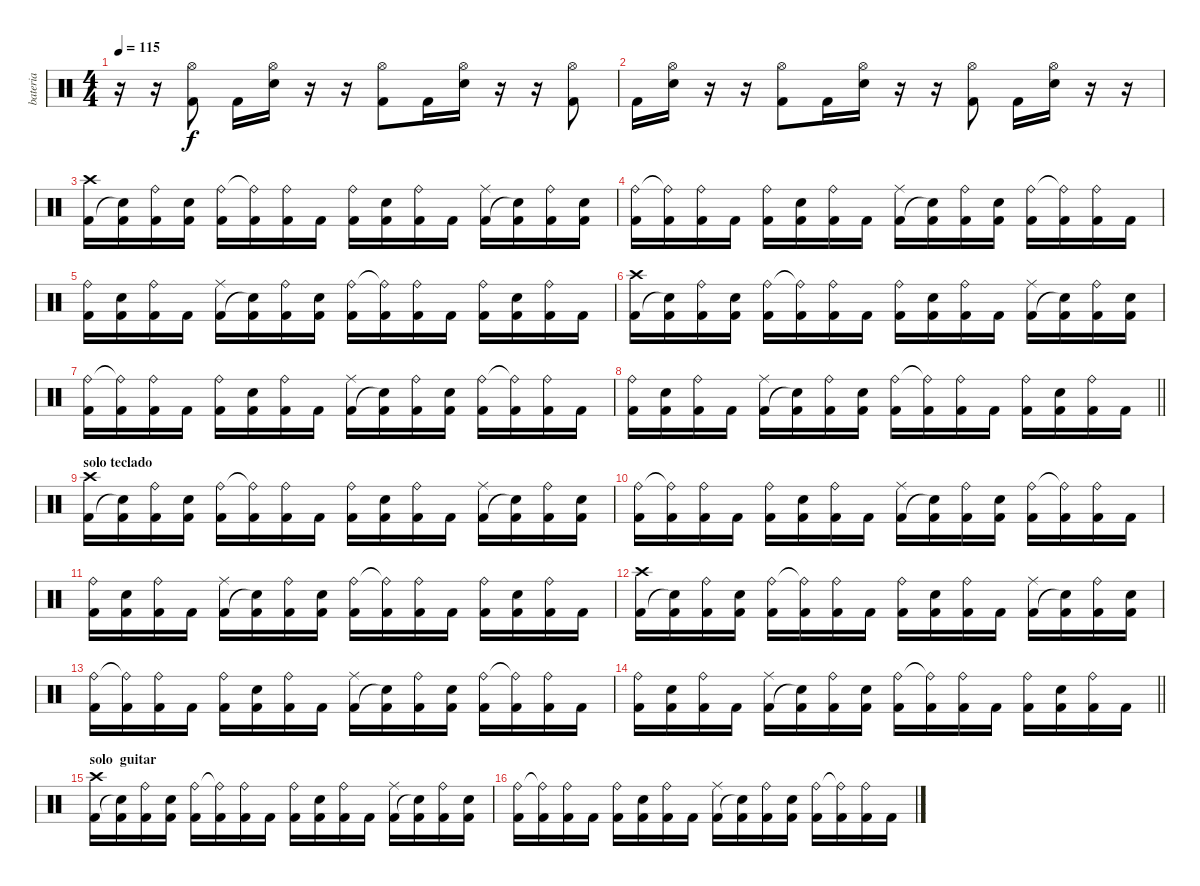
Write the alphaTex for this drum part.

\track ("bateria" "bateria") {mute instrument percussion}
\staff {score}
\articulation defaults
\ts (4 4)
\tempo 115
\clef neutral
\ks c
r.16{dy f} r.16 ("Kick (hit) 2" "Hi-Hat (open)").8 "Kick (hit) 2".16 ("Hi-Hat (open)" "Electric Snare (hit)").16 r.16 r.16 ("Kick (hit) 2" "Hi-Hat (open)").8 "Kick (hit) 2".16 ("Hi-Hat (open)" "Electric Snare (hit)").16 r.16 r.16 ("Kick (hit) 2" "Hi-Hat (open)").8 |
"Kick (hit) 2".16 ("Electric Snare (hit)" "Hi-Hat (open)").16 r.16 r.16 ("Kick (hit) 2" "Hi-Hat (open)").8 "Kick (hit) 2".16 ("Hi-Hat (open)" "Electric Snare (hit)").16 r.16 r.16 ("Kick (hit) 2" "Hi-Hat (open)").8 "Kick (hit) 2".16 ("Hi-Hat (open)" "Electric Snare (hit)").16 r.16 r.16 |
("Crash high (hit)" "Kick (hit) 2").16 ("Kick (hit) 2" "Snare (hit)"{t}).16 ("Ride (bell)" "Kick (hit) 2").16 ("Electric Snare (hit)" "Kick (hit) 2").16 ("Ride (bell)" "Kick (hit) 2").16 ("Ride (bell)"{t} "Kick (hit) 2").16 ("Kick (hit) 2" "Ride (bell)").16 "Kick (hit) 2".16 ("Ride (bell)" "Kick (hit) 2").16 ("Electric Snare (hit)" "Kick (hit) 2").16 ("Kick (hit) 2" "Ride (bell)").16 "Kick (hit) 2".16 ("Ride (middle)" "Kick (hit) 2").16 ("Kick (hit) 2" "Snare (hit)"{t}).16 ("Ride (bell)" "Kick (hit) 2").16 ("Electric Snare (hit)" "Kick (hit) 2").16 |
("Ride (bell)" "Kick (hit) 2").16 ("Ride (bell)"{t} "Kick (hit) 2").16 ("Kick (hit) 2" "Ride (bell)").16 "Kick (hit) 2".16 ("Ride (bell)" "Kick (hit) 2").16 ("Electric Snare (hit)" "Kick (hit) 2").16 ("Kick (hit) 2" "Ride (bell)").16 "Kick (hit) 2".16 ("Ride (middle)" "Kick (hit) 2").16 ("Kick (hit) 2" "Snare (hit)"{t}).16 ("Ride (bell)" "Kick (hit) 2").16 ("Electric Snare (hit)" "Kick (hit) 2").16 ("Ride (bell)" "Kick (hit) 2").16 ("Ride (bell)"{t} "Kick (hit) 2").16 ("Kick (hit) 2" "Ride (bell)").16 "Kick (hit) 2".16 |
("Ride (bell)" "Kick (hit) 2").16 ("Electric Snare (hit)" "Kick (hit) 2").16 ("Kick (hit) 2" "Ride (bell)").16 "Kick (hit) 2".16 ("Ride (middle)" "Kick (hit) 2").16 ("Kick (hit) 2" "Snare (hit)"{t}).16 ("Ride (bell)" "Kick (hit) 2").16 ("Electric Snare (hit)" "Kick (hit) 2").16 ("Ride (bell)" "Kick (hit) 2").16 ("Ride (bell)"{t} "Kick (hit) 2").16 ("Kick (hit) 2" "Ride (bell)").16 "Kick (hit) 2".16 ("Kick (hit) 2" "Ride (bell)").16 ("Kick (hit) 2" "Electric Snare (hit)").16 ("Kick (hit) 2" "Ride (bell)").16 "Kick (hit) 2".16 |
("Crash high (hit)" "Kick (hit) 2").16 ("Kick (hit) 2" "Snare (hit)"{t}).16 ("Ride (bell)" "Kick (hit) 2").16 ("Electric Snare (hit)" "Kick (hit) 2").16 ("Ride (bell)" "Kick (hit) 2").16 ("Ride (bell)"{t} "Kick (hit) 2").16 ("Kick (hit) 2" "Ride (bell)").16 "Kick (hit) 2".16 ("Ride (bell)" "Kick (hit) 2").16 ("Electric Snare (hit)" "Kick (hit) 2").16 ("Kick (hit) 2" "Ride (bell)").16 "Kick (hit) 2".16 ("Ride (middle)" "Kick (hit) 2").16 ("Kick (hit) 2" "Snare (hit)"{t}).16 ("Ride (bell)" "Kick (hit) 2").16 ("Electric Snare (hit)" "Kick (hit) 2").16 |
("Ride (bell)" "Kick (hit) 2").16 ("Ride (bell)"{t} "Kick (hit) 2").16 ("Kick (hit) 2" "Ride (bell)").16 "Kick (hit) 2".16 ("Ride (bell)" "Kick (hit) 2").16 ("Electric Snare (hit)" "Kick (hit) 2").16 ("Kick (hit) 2" "Ride (bell)").16 "Kick (hit) 2".16 ("Ride (middle)" "Kick (hit) 2").16 ("Kick (hit) 2" "Snare (hit)"{t}).16 ("Ride (bell)" "Kick (hit) 2").16 ("Electric Snare (hit)" "Kick (hit) 2").16 ("Ride (bell)" "Kick (hit) 2").16 ("Ride (bell)"{t} "Kick (hit) 2").16 ("Kick (hit) 2" "Ride (bell)").16 "Kick (hit) 2".16 |
\barLineRight lightlight
("Ride (bell)" "Kick (hit) 2").16 ("Electric Snare (hit)" "Kick (hit) 2").16 ("Kick (hit) 2" "Ride (bell)").16 "Kick (hit) 2".16 ("Ride (middle)" "Kick (hit) 2").16 ("Kick (hit) 2" "Snare (hit)"{t}).16 ("Ride (bell)" "Kick (hit) 2").16 ("Electric Snare (hit)" "Kick (hit) 2").16 ("Ride (bell)" "Kick (hit) 2").16 ("Ride (bell)"{t} "Kick (hit) 2").16 ("Kick (hit) 2" "Ride (bell)").16 "Kick (hit) 2".16 ("Kick (hit) 2" "Ride (bell)").16 ("Kick (hit) 2" "Electric Snare (hit)").16 ("Kick (hit) 2" "Ride (bell)").16 "Kick (hit) 2".16 |
\section ("" "solo teclado")
("Crash high (hit)" "Kick (hit) 2").16 ("Kick (hit) 2" "Snare (hit)"{t}).16 ("Ride (bell)" "Kick (hit) 2").16 ("Electric Snare (hit)" "Kick (hit) 2").16 ("Ride (bell)" "Kick (hit) 2").16 ("Ride (bell)"{t} "Kick (hit) 2").16 ("Kick (hit) 2" "Ride (bell)").16 "Kick (hit) 2".16 ("Ride (bell)" "Kick (hit) 2").16 ("Electric Snare (hit)" "Kick (hit) 2").16 ("Kick (hit) 2" "Ride (bell)").16 "Kick (hit) 2".16 ("Ride (middle)" "Kick (hit) 2").16 ("Kick (hit) 2" "Snare (hit)"{t}).16 ("Ride (bell)" "Kick (hit) 2").16 ("Electric Snare (hit)" "Kick (hit) 2").16 |
("Ride (bell)" "Kick (hit) 2").16 ("Ride (bell)"{t} "Kick (hit) 2").16 ("Kick (hit) 2" "Ride (bell)").16 "Kick (hit) 2".16 ("Ride (bell)" "Kick (hit) 2").16 ("Electric Snare (hit)" "Kick (hit) 2").16 ("Kick (hit) 2" "Ride (bell)").16 "Kick (hit) 2".16 ("Ride (middle)" "Kick (hit) 2").16 ("Kick (hit) 2" "Snare (hit)"{t}).16 ("Ride (bell)" "Kick (hit) 2").16 ("Electric Snare (hit)" "Kick (hit) 2").16 ("Ride (bell)" "Kick (hit) 2").16 ("Ride (bell)"{t} "Kick (hit) 2").16 ("Kick (hit) 2" "Ride (bell)").16 "Kick (hit) 2".16 |
("Ride (bell)" "Kick (hit) 2").16 ("Electric Snare (hit)" "Kick (hit) 2").16 ("Kick (hit) 2" "Ride (bell)").16 "Kick (hit) 2".16 ("Ride (middle)" "Kick (hit) 2").16 ("Kick (hit) 2" "Snare (hit)"{t}).16 ("Ride (bell)" "Kick (hit) 2").16 ("Electric Snare (hit)" "Kick (hit) 2").16 ("Ride (bell)" "Kick (hit) 2").16 ("Ride (bell)"{t} "Kick (hit) 2").16 ("Kick (hit) 2" "Ride (bell)").16 "Kick (hit) 2".16 ("Kick (hit) 2" "Ride (bell)").16 ("Kick (hit) 2" "Electric Snare (hit)").16 ("Kick (hit) 2" "Ride (bell)").16 "Kick (hit) 2".16 |
("Crash high (hit)" "Kick (hit) 2").16 ("Kick (hit) 2" "Snare (hit)"{t}).16 ("Ride (bell)" "Kick (hit) 2").16 ("Electric Snare (hit)" "Kick (hit) 2").16 ("Ride (bell)" "Kick (hit) 2").16 ("Ride (bell)"{t} "Kick (hit) 2").16 ("Kick (hit) 2" "Ride (bell)").16 "Kick (hit) 2".16 ("Ride (bell)" "Kick (hit) 2").16 ("Electric Snare (hit)" "Kick (hit) 2").16 ("Kick (hit) 2" "Ride (bell)").16 "Kick (hit) 2".16 ("Ride (middle)" "Kick (hit) 2").16 ("Kick (hit) 2" "Snare (hit)"{t}).16 ("Ride (bell)" "Kick (hit) 2").16 ("Electric Snare (hit)" "Kick (hit) 2").16 |
("Ride (bell)" "Kick (hit) 2").16 ("Ride (bell)"{t} "Kick (hit) 2").16 ("Kick (hit) 2" "Ride (bell)").16 "Kick (hit) 2".16 ("Ride (bell)" "Kick (hit) 2").16 ("Electric Snare (hit)" "Kick (hit) 2").16 ("Kick (hit) 2" "Ride (bell)").16 "Kick (hit) 2".16 ("Ride (middle)" "Kick (hit) 2").16 ("Kick (hit) 2" "Snare (hit)"{t}).16 ("Ride (bell)" "Kick (hit) 2").16 ("Electric Snare (hit)" "Kick (hit) 2").16 ("Ride (bell)" "Kick (hit) 2").16 ("Ride (bell)"{t} "Kick (hit) 2").16 ("Kick (hit) 2" "Ride (bell)").16 "Kick (hit) 2".16 |
\barLineRight lightlight
("Ride (bell)" "Kick (hit) 2").16 ("Electric Snare (hit)" "Kick (hit) 2").16 ("Kick (hit) 2" "Ride (bell)").16 "Kick (hit) 2".16 ("Ride (middle)" "Kick (hit) 2").16 ("Kick (hit) 2" "Snare (hit)"{t}).16 ("Ride (bell)" "Kick (hit) 2").16 ("Electric Snare (hit)" "Kick (hit) 2").16 ("Ride (bell)" "Kick (hit) 2").16 ("Ride (bell)"{t} "Kick (hit) 2").16 ("Kick (hit) 2" "Ride (bell)").16 "Kick (hit) 2".16 ("Kick (hit) 2" "Ride (bell)").16 ("Kick (hit) 2" "Electric Snare (hit)").16 ("Kick (hit) 2" "Ride (bell)").16 "Kick (hit) 2".16 |
\section ("" "solo  guitar")
("Crash high (hit)" "Kick (hit) 2").16 ("Kick (hit) 2" "Snare (hit)"{t}).16 ("Ride (bell)" "Kick (hit) 2").16 ("Electric Snare (hit)" "Kick (hit) 2").16 ("Ride (bell)" "Kick (hit) 2").16 ("Ride (bell)"{t} "Kick (hit) 2").16 ("Kick (hit) 2" "Ride (bell)").16 "Kick (hit) 2".16 ("Ride (bell)" "Kick (hit) 2").16 ("Electric Snare (hit)" "Kick (hit) 2").16 ("Kick (hit) 2" "Ride (bell)").16 "Kick (hit) 2".16 ("Ride (middle)" "Kick (hit) 2").16 ("Kick (hit) 2" "Snare (hit)"{t}).16 ("Ride (bell)" "Kick (hit) 2").16 ("Electric Snare (hit)" "Kick (hit) 2").16 |
("Ride (bell)" "Kick (hit) 2").16 ("Ride (bell)"{t} "Kick (hit) 2").16 ("Kick (hit) 2" "Ride (bell)").16 "Kick (hit) 2".16 ("Ride (bell)" "Kick (hit) 2").16 ("Electric Snare (hit)" "Kick (hit) 2").16 ("Kick (hit) 2" "Ride (bell)").16 "Kick (hit) 2".16 ("Ride (middle)" "Kick (hit) 2").16 ("Kick (hit) 2" "Snare (hit)"{t}).16 ("Ride (bell)" "Kick (hit) 2").16 ("Electric Snare (hit)" "Kick (hit) 2").16 ("Ride (bell)" "Kick (hit) 2").16 ("Ride (bell)"{t} "Kick (hit) 2").16 ("Kick (hit) 2" "Ride (bell)").16 "Kick (hit) 2".16
